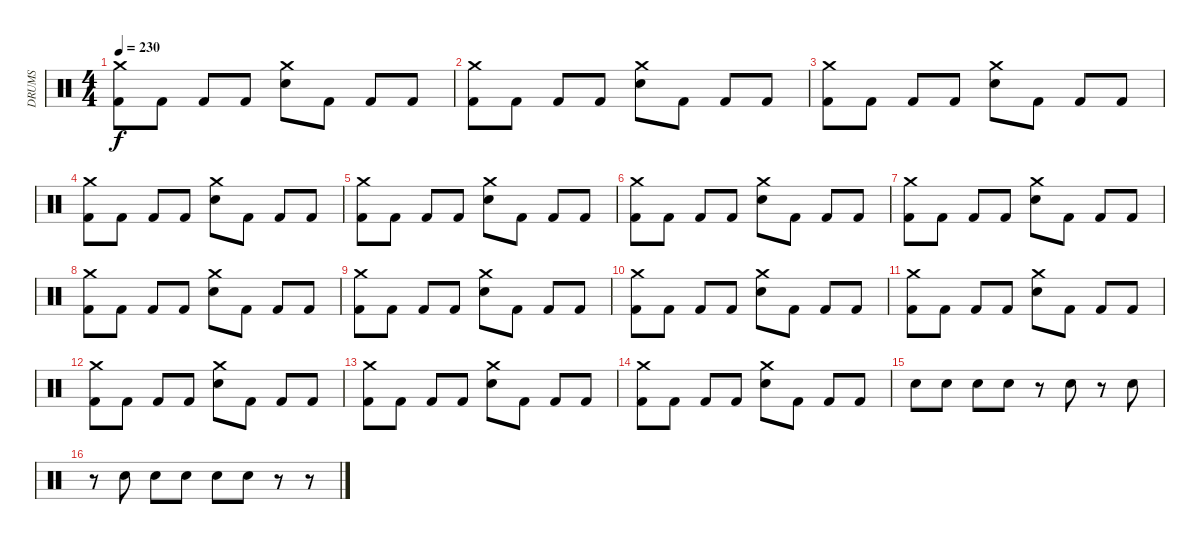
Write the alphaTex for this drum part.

\track ("DRUMS" "DRUMS") {instrument percussion}
\staff {score}
\articulation defaults
\ts (4 4)
\tempo 230
\clef neutral
\ks c
("Crash medium (hit)" "Kick (hit) 2").8{dy f} "Kick (hit) 2".8 "Kick (hit) 2".8 "Kick (hit) 2".8 ("Crash medium (hit)" "Snare (hit) 2").8 "Kick (hit) 2".8 "Kick (hit) 2".8 "Kick (hit) 2".8 |
("Crash medium (hit)" "Kick (hit) 2").8 "Kick (hit) 2".8 "Kick (hit) 2".8 "Kick (hit) 2".8 ("Crash medium (hit)" "Snare (hit) 2").8 "Kick (hit) 2".8 "Kick (hit) 2".8 "Kick (hit) 2".8 |
("Crash medium (hit)" "Kick (hit) 2").8 "Kick (hit) 2".8 "Kick (hit) 2".8 "Kick (hit) 2".8 ("Crash medium (hit)" "Snare (hit) 2").8 "Kick (hit) 2".8 "Kick (hit) 2".8 "Kick (hit) 2".8 |
("Crash medium (hit)" "Kick (hit) 2").8 "Kick (hit) 2".8 "Kick (hit) 2".8 "Kick (hit) 2".8 ("Crash medium (hit)" "Snare (hit) 2").8 "Kick (hit) 2".8 "Kick (hit) 2".8 "Kick (hit) 2".8 |
("Crash medium (hit)" "Kick (hit) 2").8 "Kick (hit) 2".8 "Kick (hit) 2".8 "Kick (hit) 2".8 ("Crash medium (hit)" "Snare (hit) 2").8 "Kick (hit) 2".8 "Kick (hit) 2".8 "Kick (hit) 2".8 |
("Crash medium (hit)" "Kick (hit) 2").8 "Kick (hit) 2".8 "Kick (hit) 2".8 "Kick (hit) 2".8 ("Crash medium (hit)" "Snare (hit) 2").8 "Kick (hit) 2".8 "Kick (hit) 2".8 "Kick (hit) 2".8 |
("Crash medium (hit)" "Kick (hit) 2").8 "Kick (hit) 2".8 "Kick (hit) 2".8 "Kick (hit) 2".8 ("Crash medium (hit)" "Snare (hit) 2").8 "Kick (hit) 2".8 "Kick (hit) 2".8 "Kick (hit) 2".8 |
("Crash medium (hit)" "Kick (hit) 2").8 "Kick (hit) 2".8 "Kick (hit) 2".8 "Kick (hit) 2".8 ("Crash medium (hit)" "Snare (hit) 2").8 "Kick (hit) 2".8 "Kick (hit) 2".8 "Kick (hit) 2".8 |
("Crash medium (hit)" "Kick (hit) 2").8 "Kick (hit) 2".8 "Kick (hit) 2".8 "Kick (hit) 2".8 ("Crash medium (hit)" "Snare (hit) 2").8 "Kick (hit) 2".8 "Kick (hit) 2".8 "Kick (hit) 2".8 |
("Crash medium (hit)" "Kick (hit) 2").8 "Kick (hit) 2".8 "Kick (hit) 2".8 "Kick (hit) 2".8 ("Crash medium (hit)" "Snare (hit) 2").8 "Kick (hit) 2".8 "Kick (hit) 2".8 "Kick (hit) 2".8 |
("Crash medium (hit)" "Kick (hit) 2").8 "Kick (hit) 2".8 "Kick (hit) 2".8 "Kick (hit) 2".8 ("Crash medium (hit)" "Snare (hit) 2").8 "Kick (hit) 2".8 "Kick (hit) 2".8 "Kick (hit) 2".8 |
("Crash medium (hit)" "Kick (hit) 2").8 "Kick (hit) 2".8 "Kick (hit) 2".8 "Kick (hit) 2".8 ("Crash medium (hit)" "Snare (hit) 2").8 "Kick (hit) 2".8 "Kick (hit) 2".8 "Kick (hit) 2".8 |
("Crash medium (hit)" "Kick (hit) 2").8 "Kick (hit) 2".8 "Kick (hit) 2".8 "Kick (hit) 2".8 ("Crash medium (hit)" "Snare (hit) 2").8 "Kick (hit) 2".8 "Kick (hit) 2".8 "Kick (hit) 2".8 |
("Crash medium (hit)" "Kick (hit) 2").8 "Kick (hit) 2".8 "Kick (hit) 2".8 "Kick (hit) 2".8 ("Crash medium (hit)" "Snare (hit) 2").8 "Kick (hit) 2".8 "Kick (hit) 2".8 "Kick (hit) 2".8 |
"Snare (hit) 2".8 "Snare (hit) 2".8 "Snare (hit) 2".8 "Snare (hit) 2".8 r.8 "Snare (hit) 2".8 r.8 "Snare (hit) 2".8 |
r.8 "Snare (hit) 2".8 "Snare (hit) 2".8 "Snare (hit) 2".8 "Snare (hit) 2".8 "Snare (hit) 2".8 r.8 r.8
